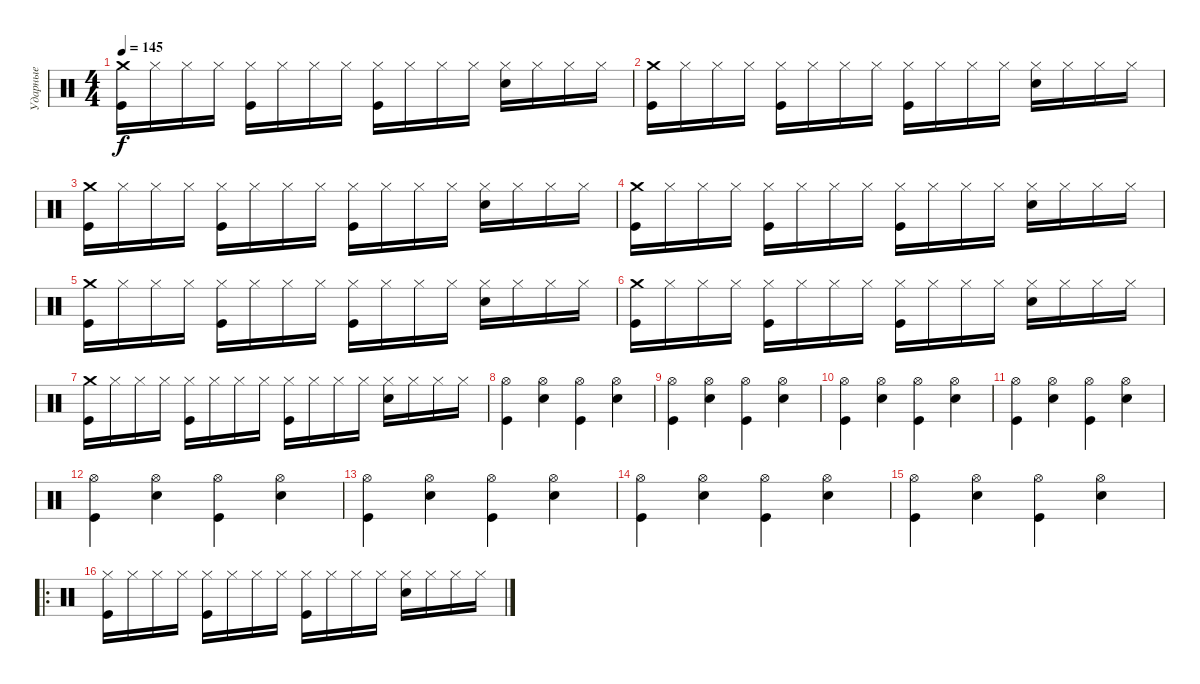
\track ("Ударные" "Ударные") {instrument percussion}
\staff {score}
\articulation defaults
\ts (4 4)
\tempo 145
\clef neutral
\ks c
("Kick (hit)" "Crash medium (hit)").16{dy f} "Hi-Hat (closed)".16 "Hi-Hat (closed)".16 "Hi-Hat (closed)".16 ("Kick (hit)" "Hi-Hat (closed)").16 "Hi-Hat (closed)".16 "Hi-Hat (closed)".16 "Hi-Hat (closed)".16 ("Kick (hit)" "Hi-Hat (closed)").16 "Hi-Hat (closed)".16 "Hi-Hat (closed)".16 "Hi-Hat (closed)".16 ("Electric Snare (hit)" "Hi-Hat (closed)").16 "Hi-Hat (closed)".16 "Hi-Hat (closed)".16 "Hi-Hat (closed)".16 |
("Kick (hit)" "Crash medium (hit)").16 "Hi-Hat (closed)".16 "Hi-Hat (closed)".16 "Hi-Hat (closed)".16 ("Kick (hit)" "Hi-Hat (closed)").16 "Hi-Hat (closed)".16 "Hi-Hat (closed)".16 "Hi-Hat (closed)".16 ("Kick (hit)" "Hi-Hat (closed)").16 "Hi-Hat (closed)".16 "Hi-Hat (closed)".16 "Hi-Hat (closed)".16 ("Electric Snare (hit)" "Hi-Hat (closed)").16 "Hi-Hat (closed)".16 "Hi-Hat (closed)".16 "Hi-Hat (closed)".16 |
("Kick (hit)" "Crash medium (hit)").16 "Hi-Hat (closed)".16 "Hi-Hat (closed)".16 "Hi-Hat (closed)".16 ("Kick (hit)" "Hi-Hat (closed)").16 "Hi-Hat (closed)".16 "Hi-Hat (closed)".16 "Hi-Hat (closed)".16 ("Kick (hit)" "Hi-Hat (closed)").16 "Hi-Hat (closed)".16 "Hi-Hat (closed)".16 "Hi-Hat (closed)".16 ("Electric Snare (hit)" "Hi-Hat (closed)").16 "Hi-Hat (closed)".16 "Hi-Hat (closed)".16 "Hi-Hat (closed)".16 |
("Kick (hit)" "Crash medium (hit)").16 "Hi-Hat (closed)".16 "Hi-Hat (closed)".16 "Hi-Hat (closed)".16 ("Kick (hit)" "Hi-Hat (closed)").16 "Hi-Hat (closed)".16 "Hi-Hat (closed)".16 "Hi-Hat (closed)".16 ("Kick (hit)" "Hi-Hat (closed)").16 "Hi-Hat (closed)".16 "Hi-Hat (closed)".16 "Hi-Hat (closed)".16 ("Electric Snare (hit)" "Hi-Hat (closed)").16 "Hi-Hat (closed)".16 "Hi-Hat (closed)".16 "Hi-Hat (closed)".16 |
("Kick (hit)" "Crash medium (hit)").16 "Hi-Hat (closed)".16 "Hi-Hat (closed)".16 "Hi-Hat (closed)".16 ("Kick (hit)" "Hi-Hat (closed)").16 "Hi-Hat (closed)".16 "Hi-Hat (closed)".16 "Hi-Hat (closed)".16 ("Kick (hit)" "Hi-Hat (closed)").16 "Hi-Hat (closed)".16 "Hi-Hat (closed)".16 "Hi-Hat (closed)".16 ("Electric Snare (hit)" "Hi-Hat (closed)").16 "Hi-Hat (closed)".16 "Hi-Hat (closed)".16 "Hi-Hat (closed)".16 |
("Kick (hit)" "Crash medium (hit)").16 "Hi-Hat (closed)".16 "Hi-Hat (closed)".16 "Hi-Hat (closed)".16 ("Kick (hit)" "Hi-Hat (closed)").16 "Hi-Hat (closed)".16 "Hi-Hat (closed)".16 "Hi-Hat (closed)".16 ("Kick (hit)" "Hi-Hat (closed)").16 "Hi-Hat (closed)".16 "Hi-Hat (closed)".16 "Hi-Hat (closed)".16 ("Electric Snare (hit)" "Hi-Hat (closed)").16 "Hi-Hat (closed)".16 "Hi-Hat (closed)".16 "Hi-Hat (closed)".16 |
("Kick (hit)" "Crash medium (hit)").16 "Hi-Hat (closed)".16 "Hi-Hat (closed)".16 "Hi-Hat (closed)".16 ("Kick (hit)" "Hi-Hat (closed)").16 "Hi-Hat (closed)".16 "Hi-Hat (closed)".16 "Hi-Hat (closed)".16 ("Kick (hit)" "Hi-Hat (closed)").16 "Hi-Hat (closed)".16 "Hi-Hat (closed)".16 "Hi-Hat (closed)".16 ("Electric Snare (hit)" "Hi-Hat (closed)").16 "Hi-Hat (closed)".16 "Hi-Hat (closed)".16 "Hi-Hat (closed)".16 |
("Kick (hit)" "Hi-Hat (open)").4 ("Electric Snare (hit)" "Hi-Hat (open)").4 ("Kick (hit)" "Hi-Hat (open)").4 ("Electric Snare (hit)" "Hi-Hat (open)").4 |
("Kick (hit)" "Hi-Hat (open)").4 ("Electric Snare (hit)" "Hi-Hat (open)").4 ("Kick (hit)" "Hi-Hat (open)").4 ("Electric Snare (hit)" "Hi-Hat (open)").4 |
("Kick (hit)" "Hi-Hat (open)").4 ("Electric Snare (hit)" "Hi-Hat (open)").4 ("Kick (hit)" "Hi-Hat (open)").4 ("Electric Snare (hit)" "Hi-Hat (open)").4 |
("Kick (hit)" "Hi-Hat (open)").4 ("Electric Snare (hit)" "Hi-Hat (open)").4 ("Kick (hit)" "Hi-Hat (open)").4 ("Electric Snare (hit)" "Hi-Hat (open)").4 |
("Kick (hit)" "Hi-Hat (open)").4 ("Electric Snare (hit)" "Hi-Hat (open)").4 ("Kick (hit)" "Hi-Hat (open)").4 ("Electric Snare (hit)" "Hi-Hat (open)").4 |
("Kick (hit)" "Hi-Hat (open)").4 ("Electric Snare (hit)" "Hi-Hat (open)").4 ("Kick (hit)" "Hi-Hat (open)").4 ("Electric Snare (hit)" "Hi-Hat (open)").4 |
("Kick (hit)" "Hi-Hat (open)").4 ("Electric Snare (hit)" "Hi-Hat (open)").4 ("Kick (hit)" "Hi-Hat (open)").4 ("Electric Snare (hit)" "Hi-Hat (open)").4 |
("Kick (hit)" "Hi-Hat (open)").4 ("Electric Snare (hit)" "Hi-Hat (open)").4 ("Kick (hit)" "Hi-Hat (open)").4 ("Electric Snare (hit)" "Hi-Hat (open)").4 |
\ro
("Kick (hit)" "Hi-Hat (closed)").16 "Hi-Hat (closed)".16 "Hi-Hat (closed)".16 "Hi-Hat (closed)".16 ("Kick (hit)" "Hi-Hat (closed)").16 "Hi-Hat (closed)".16 "Hi-Hat (closed)".16 "Hi-Hat (closed)".16 ("Kick (hit)" "Hi-Hat (closed)").16 "Hi-Hat (closed)".16 "Hi-Hat (closed)".16 "Hi-Hat (closed)".16 ("Electric Snare (hit)" "Hi-Hat (closed)").16 "Hi-Hat (closed)".16 "Hi-Hat (closed)".16 "Hi-Hat (closed)".16
